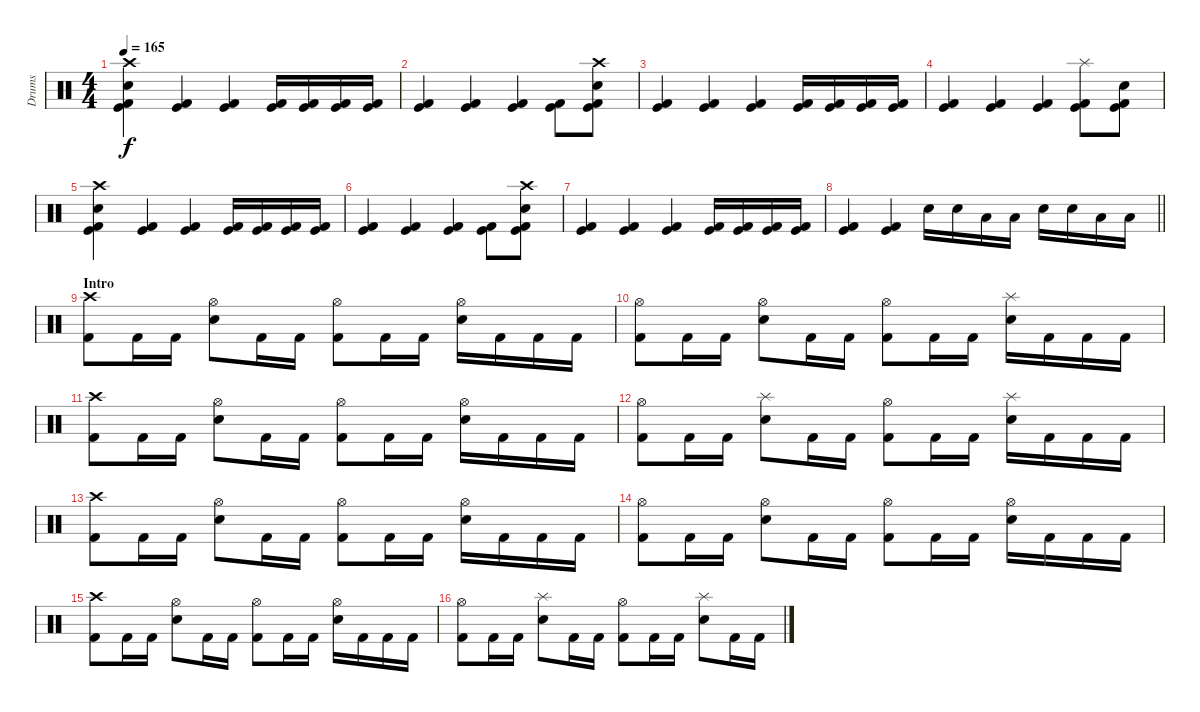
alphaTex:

\track ("Drums" "Drums") {instrument percussion}
\staff {score}
\articulation defaults
\ts (4 4)
\tempo 165
\clef neutral
\ks c
("Crash high (hit)" "Snare (hit) 2" "Kick (hit)" "Kick (hit) 2").4{dy f} ("Kick (hit)" "Kick (hit) 2").4 ("Kick (hit)" "Kick (hit) 2").4 ("Kick (hit)" "Kick (hit) 2").16 ("Kick (hit)" "Kick (hit) 2").16 ("Kick (hit)" "Kick (hit) 2").16 ("Kick (hit)" "Kick (hit) 2").16 |
("Kick (hit)" "Kick (hit) 2").4 ("Kick (hit)" "Kick (hit) 2").4 ("Kick (hit)" "Kick (hit) 2").4 ("Kick (hit)" "Kick (hit) 2").8 ("Crash high (hit)" "Snare (hit) 2" "Kick (hit)" "Kick (hit) 2").8 |
("Kick (hit)" "Kick (hit) 2").4 ("Kick (hit)" "Kick (hit) 2").4 ("Kick (hit)" "Kick (hit) 2").4 ("Kick (hit)" "Kick (hit) 2").16 ("Kick (hit)" "Kick (hit) 2").16 ("Kick (hit)" "Kick (hit) 2").16 ("Kick (hit)" "Kick (hit) 2").16 |
("Kick (hit)" "Kick (hit) 2").4 ("Kick (hit)" "Kick (hit) 2").4 ("Kick (hit)" "Kick (hit) 2").4 ("Splash (hit)" "Kick (hit)" "Kick (hit) 2").8 ("Snare (hit) 2" "Kick (hit)" "Kick (hit) 2").8 |
("Crash high (hit)" "Snare (hit) 2" "Kick (hit)" "Kick (hit) 2").4 ("Kick (hit)" "Kick (hit) 2").4 ("Kick (hit)" "Kick (hit) 2").4 ("Kick (hit)" "Kick (hit) 2").16 ("Kick (hit)" "Kick (hit) 2").16 ("Kick (hit)" "Kick (hit) 2").16 ("Kick (hit)" "Kick (hit) 2").16 |
("Kick (hit)" "Kick (hit) 2").4 ("Kick (hit)" "Kick (hit) 2").4 ("Kick (hit)" "Kick (hit) 2").4 ("Kick (hit)" "Kick (hit) 2").8 ("Crash high (hit)" "Snare (hit) 2" "Kick (hit)" "Kick (hit) 2").8 |
("Kick (hit)" "Kick (hit) 2").4 ("Kick (hit)" "Kick (hit) 2").4 ("Kick (hit)" "Kick (hit) 2").4 ("Kick (hit)" "Kick (hit) 2").16 ("Kick (hit)" "Kick (hit) 2").16 ("Kick (hit)" "Kick (hit) 2").16 ("Kick (hit)" "Kick (hit) 2").16 |
\barLineRight lightlight
("Kick (hit)" "Kick (hit) 2").4 ("Kick (hit)" "Kick (hit) 2").4 "Snare (hit) 2".16 "Snare (hit) 2".16 "Low Tom (hit)".16 "Low Tom (hit)".16 "Snare (hit) 2".16 "Snare (hit) 2".16 "Low Tom (hit)".16 "Low Tom (hit)".16 |
\section ("" "Intro")
("Crash high (hit)" "Kick (hit) 2").8 "Kick (hit) 2".16 "Kick (hit) 2".16 ("Hi-Hat (open)" "Snare (hit) 2").8 "Kick (hit) 2".16 "Kick (hit) 2".16 ("Hi-Hat (open)" "Kick (hit) 2").8 "Kick (hit) 2".16 "Kick (hit) 2".16 ("Hi-Hat (open)" "Snare (hit) 2").16 "Kick (hit) 2".16 "Kick (hit) 2".16 "Kick (hit) 2".16 |
("Hi-Hat (open)" "Kick (hit) 2").8 "Kick (hit) 2".16 "Kick (hit) 2".16 ("Hi-Hat (open)" "Snare (hit) 2").8 "Kick (hit) 2".16 "Kick (hit) 2".16 ("Hi-Hat (open)" "Kick (hit) 2").8 "Kick (hit) 2".16 "Kick (hit) 2".16 ("Splash (hit)" "Snare (hit) 2").16 "Kick (hit) 2".16 "Kick (hit) 2".16 "Kick (hit) 2".16 |
("Crash high (hit)" "Kick (hit) 2").8 "Kick (hit) 2".16 "Kick (hit) 2".16 ("Hi-Hat (open)" "Snare (hit) 2").8 "Kick (hit) 2".16 "Kick (hit) 2".16 ("Hi-Hat (open)" "Kick (hit) 2").8 "Kick (hit) 2".16 "Kick (hit) 2".16 ("Hi-Hat (open)" "Snare (hit) 2").16 "Kick (hit) 2".16 "Kick (hit) 2".16 "Kick (hit) 2".16 |
("Hi-Hat (open)" "Kick (hit) 2").8 "Kick (hit) 2".16 "Kick (hit) 2".16 ("Splash (hit)" "Snare (hit) 2").8 "Kick (hit) 2".16 "Kick (hit) 2".16 ("Hi-Hat (open)" "Kick (hit) 2").8 "Kick (hit) 2".16 "Kick (hit) 2".16 ("Splash (hit)" "Snare (hit) 2").16 "Kick (hit) 2".16 "Kick (hit) 2".16 "Kick (hit) 2".16 |
("Crash high (hit)" "Kick (hit) 2").8 "Kick (hit) 2".16 "Kick (hit) 2".16 ("Hi-Hat (open)" "Snare (hit) 2").8 "Kick (hit) 2".16 "Kick (hit) 2".16 ("Hi-Hat (open)" "Kick (hit) 2").8 "Kick (hit) 2".16 "Kick (hit) 2".16 ("Hi-Hat (open)" "Snare (hit) 2").16 "Kick (hit) 2".16 "Kick (hit) 2".16 "Kick (hit) 2".16 |
("Hi-Hat (open)" "Kick (hit) 2").8 "Kick (hit) 2".16 "Kick (hit) 2".16 ("Hi-Hat (open)" "Snare (hit) 2").8 "Kick (hit) 2".16 "Kick (hit) 2".16 ("Hi-Hat (open)" "Kick (hit) 2").8 "Kick (hit) 2".16 "Kick (hit) 2".16 ("Hi-Hat (open)" "Snare (hit) 2").16 "Kick (hit) 2".16 "Kick (hit) 2".16 "Kick (hit) 2".16 |
("Crash high (hit)" "Kick (hit) 2").8 "Kick (hit) 2".16 "Kick (hit) 2".16 ("Hi-Hat (open)" "Snare (hit) 2").8 "Kick (hit) 2".16 "Kick (hit) 2".16 ("Hi-Hat (open)" "Kick (hit) 2").8 "Kick (hit) 2".16 "Kick (hit) 2".16 ("Hi-Hat (open)" "Snare (hit) 2").16 "Kick (hit) 2".16 "Kick (hit) 2".16 "Kick (hit) 2".16 |
("Hi-Hat (open)" "Kick (hit) 2").8 "Kick (hit) 2".16 "Kick (hit) 2".16 ("Splash (hit)" "Snare (hit) 2").8 "Kick (hit) 2".16 "Kick (hit) 2".16 ("Hi-Hat (open)" "Kick (hit) 2").8 "Kick (hit) 2".16 "Kick (hit) 2".16 ("Splash (hit)" "Snare (hit) 2").8 "Kick (hit) 2".16 "Kick (hit) 2".16
